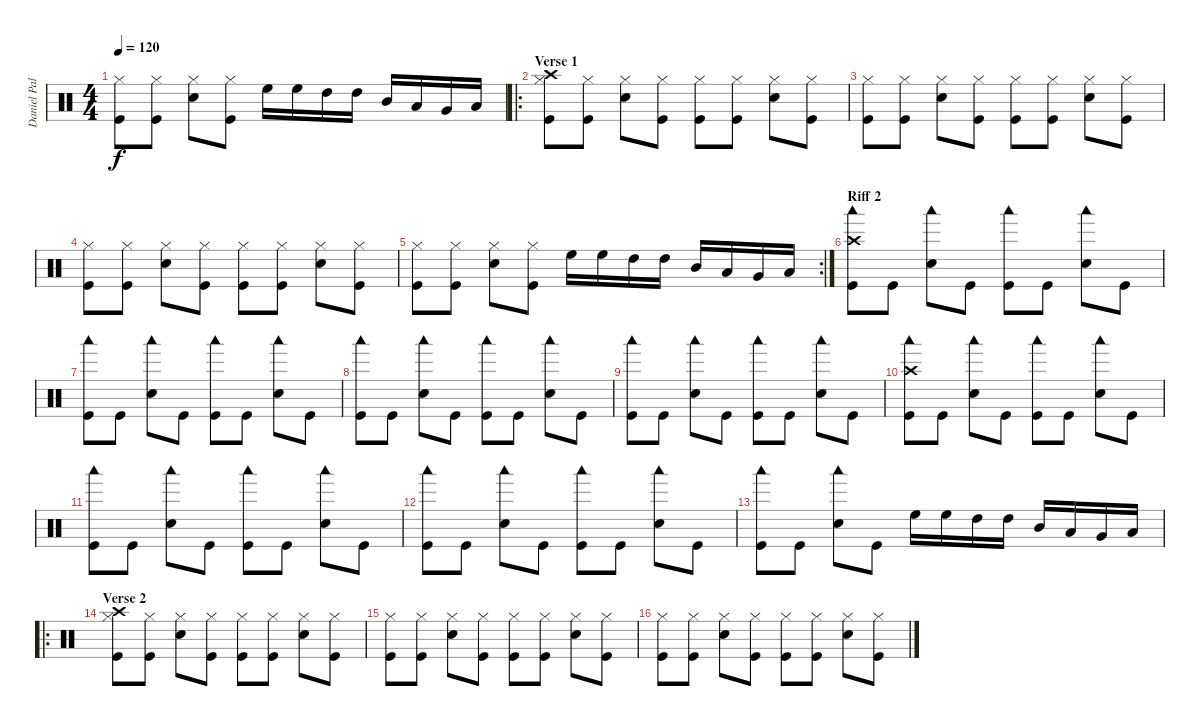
\track ("Daniel Pal" "Daniel Pal") {instrument percussion}
\staff {score}
\articulation defaults
\ts (4 4)
\tempo 120
\clef neutral
\ks c
("Hi-Hat (closed)" "Kick (hit)").8{dy f} ("Hi-Hat (closed)" "Kick (hit)").8 ("Hi-Hat (closed)" "Electric Snare (hit)").8 ("Hi-Hat (closed)" "Kick (hit)").8 "High Floor Tom (hit)".16 "High Floor Tom (hit)".16 "High Tom (hit)".16 "High Tom (hit)".16 "Mid Tom (hit)".16 "Low Tom (hit)".16 "Very Low Tom (hit)".16 "Low Floor Tom (hit)".16 |
\ro
\section ("" "Verse 1")
("Crash high (hit)" "Hi-Hat (closed)" "Kick (hit)").8 ("Hi-Hat (closed)" "Kick (hit)").8 ("Hi-Hat (closed)" "Electric Snare (hit)").8 ("Hi-Hat (closed)" "Kick (hit)").8 ("Hi-Hat (closed)" "Kick (hit)").8 ("Hi-Hat (closed)" "Kick (hit)").8 ("Hi-Hat (closed)" "Electric Snare (hit)").8 ("Hi-Hat (closed)" "Kick (hit)").8 |
("Hi-Hat (closed)" "Kick (hit)").8 ("Hi-Hat (closed)" "Kick (hit)").8 ("Hi-Hat (closed)" "Electric Snare (hit)").8 ("Hi-Hat (closed)" "Kick (hit)").8 ("Hi-Hat (closed)" "Kick (hit)").8 ("Hi-Hat (closed)" "Kick (hit)").8 ("Hi-Hat (closed)" "Electric Snare (hit)").8 ("Hi-Hat (closed)" "Kick (hit)").8 |
("Hi-Hat (closed)" "Kick (hit)").8 ("Hi-Hat (closed)" "Kick (hit)").8 ("Hi-Hat (closed)" "Electric Snare (hit)").8 ("Hi-Hat (closed)" "Kick (hit)").8 ("Hi-Hat (closed)" "Kick (hit)").8 ("Hi-Hat (closed)" "Kick (hit)").8 ("Hi-Hat (closed)" "Electric Snare (hit)").8 ("Hi-Hat (closed)" "Kick (hit)").8 |
\rc 2
("Hi-Hat (closed)" "Kick (hit)").8 ("Hi-Hat (closed)" "Kick (hit)").8 ("Hi-Hat (closed)" "Electric Snare (hit)").8 ("Hi-Hat (closed)" "Kick (hit)").8 "High Floor Tom (hit)".16 "High Floor Tom (hit)".16 "High Tom (hit)".16 "High Tom (hit)".16 "Mid Tom (hit)".16 "Low Tom (hit)".16 "Very Low Tom (hit)".16 "Low Floor Tom (hit)".16 |
\section ("" "Riff 2")
("Crash high (hit)" "Woodblock low (hit)" "Kick (hit)").8 "Kick (hit)".8 ("Woodblock low (hit)" "Electric Snare (hit)").8 "Kick (hit)".8 ("Woodblock low (hit)" "Kick (hit)").8 "Kick (hit)".8 ("Woodblock low (hit)" "Electric Snare (hit)").8 "Kick (hit)".8 |
("Woodblock low (hit)" "Kick (hit)").8 "Kick (hit)".8 ("Woodblock low (hit)" "Electric Snare (hit)").8 "Kick (hit)".8 ("Woodblock low (hit)" "Kick (hit)").8 "Kick (hit)".8 ("Woodblock low (hit)" "Electric Snare (hit)").8 "Kick (hit)".8 |
("Woodblock low (hit)" "Kick (hit)").8 "Kick (hit)".8 ("Woodblock low (hit)" "Electric Snare (hit)").8 "Kick (hit)".8 ("Woodblock low (hit)" "Kick (hit)").8 "Kick (hit)".8 ("Woodblock low (hit)" "Electric Snare (hit)").8 "Kick (hit)".8 |
("Woodblock low (hit)" "Kick (hit)").8 "Kick (hit)".8 ("Woodblock low (hit)" "Electric Snare (hit)").8 "Kick (hit)".8 ("Woodblock low (hit)" "Kick (hit)").8 "Kick (hit)".8 ("Woodblock low (hit)" "Electric Snare (hit)").8 "Kick (hit)".8 |
("Crash high (hit)" "Woodblock low (hit)" "Kick (hit)").8 "Kick (hit)".8 ("Woodblock low (hit)" "Electric Snare (hit)").8 "Kick (hit)".8 ("Woodblock low (hit)" "Kick (hit)").8 "Kick (hit)".8 ("Woodblock low (hit)" "Electric Snare (hit)").8 "Kick (hit)".8 |
("Woodblock low (hit)" "Kick (hit)").8 "Kick (hit)".8 ("Woodblock low (hit)" "Electric Snare (hit)").8 "Kick (hit)".8 ("Woodblock low (hit)" "Kick (hit)").8 "Kick (hit)".8 ("Woodblock low (hit)" "Electric Snare (hit)").8 "Kick (hit)".8 |
("Woodblock low (hit)" "Kick (hit)").8 "Kick (hit)".8 ("Woodblock low (hit)" "Electric Snare (hit)").8 "Kick (hit)".8 ("Woodblock low (hit)" "Kick (hit)").8 "Kick (hit)".8 ("Woodblock low (hit)" "Electric Snare (hit)").8 "Kick (hit)".8 |
("Woodblock low (hit)" "Kick (hit)").8 "Kick (hit)".8 ("Woodblock low (hit)" "Electric Snare (hit)").8 "Kick (hit)".8 "High Floor Tom (hit)".16 "High Floor Tom (hit)".16 "High Tom (hit)".16 "High Tom (hit)".16 "Mid Tom (hit)".16 "Low Tom (hit)".16 "Very Low Tom (hit)".16 "Low Floor Tom (hit)".16 |
\ro
\section ("" "Verse 2")
("Crash high (hit)" "Hi-Hat (closed)" "Kick (hit)").8 ("Hi-Hat (closed)" "Kick (hit)").8 ("Hi-Hat (closed)" "Electric Snare (hit)").8 ("Hi-Hat (closed)" "Kick (hit)").8 ("Hi-Hat (closed)" "Kick (hit)").8 ("Hi-Hat (closed)" "Kick (hit)").8 ("Hi-Hat (closed)" "Electric Snare (hit)").8 ("Hi-Hat (closed)" "Kick (hit)").8 |
("Hi-Hat (closed)" "Kick (hit)").8 ("Hi-Hat (closed)" "Kick (hit)").8 ("Hi-Hat (closed)" "Electric Snare (hit)").8 ("Hi-Hat (closed)" "Kick (hit)").8 ("Hi-Hat (closed)" "Kick (hit)").8 ("Hi-Hat (closed)" "Kick (hit)").8 ("Hi-Hat (closed)" "Electric Snare (hit)").8 ("Hi-Hat (closed)" "Kick (hit)").8 |
("Hi-Hat (closed)" "Kick (hit)").8 ("Hi-Hat (closed)" "Kick (hit)").8 ("Hi-Hat (closed)" "Electric Snare (hit)").8 ("Hi-Hat (closed)" "Kick (hit)").8 ("Hi-Hat (closed)" "Kick (hit)").8 ("Hi-Hat (closed)" "Kick (hit)").8 ("Hi-Hat (closed)" "Electric Snare (hit)").8 ("Hi-Hat (closed)" "Kick (hit)").8
